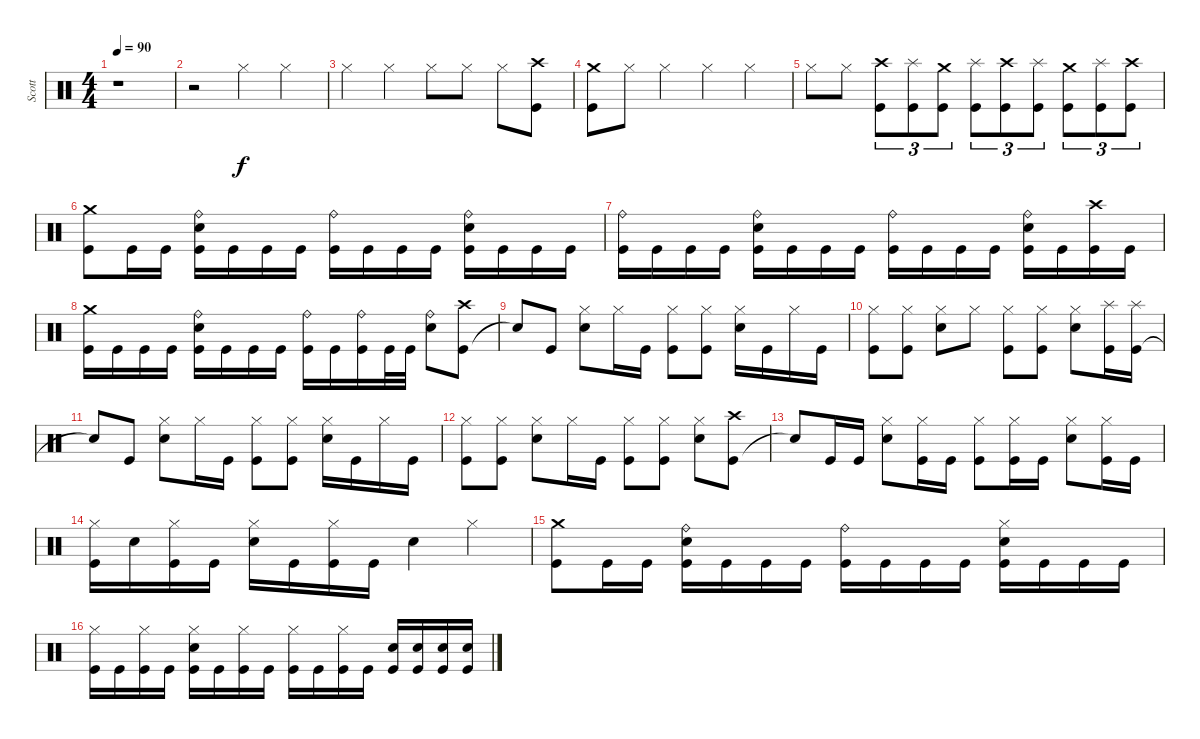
\track ("Scott" "Scott") {instrument percussion}
\staff {score}
\articulation defaults
\ts (4 4)
\tempo 90
\clef neutral
\ks c
r.1{dy f} |
r.2 "Hi-Hat (closed)".4 "Hi-Hat (closed)".4 |
"Hi-Hat (closed)".4 "Hi-Hat (closed)".4 "Hi-Hat (closed)".8 "Hi-Hat (closed)".8 "Hi-Hat (closed)".8 ("Kick (hit)" "Crash high (hit)").8 |
("Kick (hit)" "Crash medium (hit)").8 "Hi-Hat (closed)".8 "Hi-Hat (closed)".4 "Hi-Hat (closed)".4 "Hi-Hat (closed)".4 |
"Hi-Hat (closed)".8 "Hi-Hat (closed)".8 ("Kick (hit)" "Crash high (hit)").8{tu (3 2)} ("Kick (hit)" "Splash (hit)").8{tu (3 2)} ("Kick (hit)" "Crash medium (hit)").8{tu (3 2)} ("Kick (hit)" "Splash (hit)").8{tu (3 2)} ("Kick (hit)" "Crash high (hit)").8{tu (3 2)} ("Kick (hit)" "Splash (hit)").8{tu (3 2)} ("Kick (hit)" "Crash medium (hit)").8{tu (3 2)} ("Kick (hit)" "Splash (hit)").8{tu (3 2)} ("Kick (hit)" "Crash high (hit)").8{tu (3 2)} |
("Kick (hit)" "Crash medium (hit)").8 "Kick (hit)".16 "Kick (hit)".16 ("Kick (hit)" "Snare (hit) 2" "Ride (bell)").16 "Kick (hit)".16 "Kick (hit)".16 "Kick (hit)".16 ("Kick (hit)" "Ride (bell)").16 "Kick (hit)".16 "Kick (hit)".16 "Kick (hit)".16 ("Kick (hit)" "Snare (hit) 2" "Ride (bell)").16 "Kick (hit)".16 "Kick (hit)".16 "Kick (hit)".16 |
("Kick (hit)" "Ride (bell)").16 "Kick (hit)".16 "Kick (hit)".16 "Kick (hit)".16 ("Kick (hit)" "Snare (hit) 2" "Ride (bell)").16 "Kick (hit)".16 "Kick (hit)".16 "Kick (hit)".16 ("Kick (hit)" "Ride (bell)").16 "Kick (hit)".16 "Kick (hit)".16 "Kick (hit)".16 ("Kick (hit)" "Snare (hit) 2" "Ride (bell)").16 "Kick (hit)".16 ("Kick (hit)" "Crash high (hit)").16 "Kick (hit)".16 |
("Kick (hit)" "Crash medium (hit)").16 "Kick (hit)".16 "Kick (hit)".16 "Kick (hit)".16 ("Kick (hit)" "Snare (hit) 2" "Ride (bell)").16 "Kick (hit)".16 "Kick (hit)".16 "Kick (hit)".16 ("Kick (hit)" "Ride (bell)").16 "Kick (hit)".16 ("Kick (hit)" "Ride (bell)").16 "Kick (hit)".32 "Kick (hit)".32 ("Snare (hit) 2" "Ride (bell)").8 ("Kick (hit)" "Crash high (hit)").8 |
"Snare (hit)"{t}.8 "Kick (hit)".8 ("Snare (hit) 2" "Hi-Hat (closed)").8 "Hi-Hat (closed)".16 "Kick (hit)".16 ("Kick (hit)" "Hi-Hat (closed)").8 ("Kick (hit)" "Hi-Hat (closed)").8 ("Snare (hit) 2" "Hi-Hat (closed)").16 "Kick (hit)".16 "Hi-Hat (closed)".16 "Kick (hit)".16 |
("Kick (hit)" "Hi-Hat (closed)").8 ("Kick (hit)" "Hi-Hat (closed)").8 ("Snare (hit) 2" "Hi-Hat (closed)").8 "Hi-Hat (closed)".8 ("Kick (hit)" "Hi-Hat (closed)").8 ("Kick (hit)" "Hi-Hat (closed)").8 ("Snare (hit) 2" "Hi-Hat (closed)").8 ("Kick (hit)" "Splash (hit)").16 ("Kick (hit)" "Splash (hit)").16 |
"Snare (hit)"{t}.8 "Kick (hit)".8 ("Snare (hit) 2" "Hi-Hat (closed)").8 "Hi-Hat (closed)".16 "Kick (hit)".16 ("Kick (hit)" "Hi-Hat (closed)").8 ("Kick (hit)" "Hi-Hat (closed)").8 ("Snare (hit) 2" "Hi-Hat (closed)").16 "Kick (hit)".16 "Hi-Hat (closed)".16 "Kick (hit)".16 |
("Kick (hit)" "Hi-Hat (closed)").8 ("Kick (hit)" "Hi-Hat (closed)").8 ("Snare (hit) 2" "Hi-Hat (closed)").8 "Hi-Hat (closed)".16 "Kick (hit)".16 ("Kick (hit)" "Hi-Hat (closed)").8 ("Kick (hit)" "Hi-Hat (closed)").8 ("Snare (hit) 2" "Hi-Hat (closed)").8 ("Kick (hit)" "Crash high (hit)").8 |
"Snare (hit)"{t}.8 "Kick (hit)".16 "Kick (hit)".16 ("Snare (hit) 2" "Hi-Hat (closed)").8 ("Kick (hit)" "Hi-Hat (closed)").16 "Kick (hit)".16 ("Kick (hit)" "Hi-Hat (closed)").8 ("Kick (hit)" "Hi-Hat (closed)").16 "Kick (hit)".16 ("Snare (hit) 2" "Hi-Hat (closed)").8 ("Kick (hit)" "Hi-Hat (closed)").16 "Kick (hit)".16 |
("Kick (hit)" "Hi-Hat (closed)").16 "Snare (hit) 2".16 ("Kick (hit)" "Hi-Hat (closed)").16 "Kick (hit)".16 ("Snare (hit) 2" "Hi-Hat (closed)").16 "Kick (hit)".16 ("Kick (hit)" "Hi-Hat (closed)").16 "Kick (hit)".16 "Snare (hit) 2".4 "Hi-Hat (closed)".4 |
("Kick (hit)" "Crash medium (hit)").8 "Kick (hit)".16 "Kick (hit)".16 ("Kick (hit)" "Snare (hit) 2" "Ride (bell)").16 "Kick (hit)".16 "Kick (hit)".16 "Kick (hit)".16 ("Kick (hit)" "Ride (bell)").16 "Kick (hit)".16 "Kick (hit)".16 "Kick (hit)".16 ("Kick (hit)" "Snare (hit) 2" "Hi-Hat (closed)").16 "Kick (hit)".16 "Kick (hit)".16 "Kick (hit)".16 |
("Kick (hit)" "Hi-Hat (closed)").16 "Kick (hit)".16 ("Kick (hit)" "Hi-Hat (closed)").16 "Kick (hit)".16 ("Kick (hit)" "Snare (hit) 2" "Hi-Hat (closed)").16 "Kick (hit)".16 ("Kick (hit)" "Hi-Hat (closed)").16 "Kick (hit)".16 ("Kick (hit)" "Hi-Hat (closed)").16 "Kick (hit)".16 ("Kick (hit)" "Hi-Hat (closed)").16 "Kick (hit)".16 ("Kick (hit)" "Snare (hit) 2").16 ("Kick (hit)" "Snare (hit) 2").16 ("Kick (hit)" "Snare (hit) 2").16 ("Kick (hit)" "Snare (hit) 2").16
